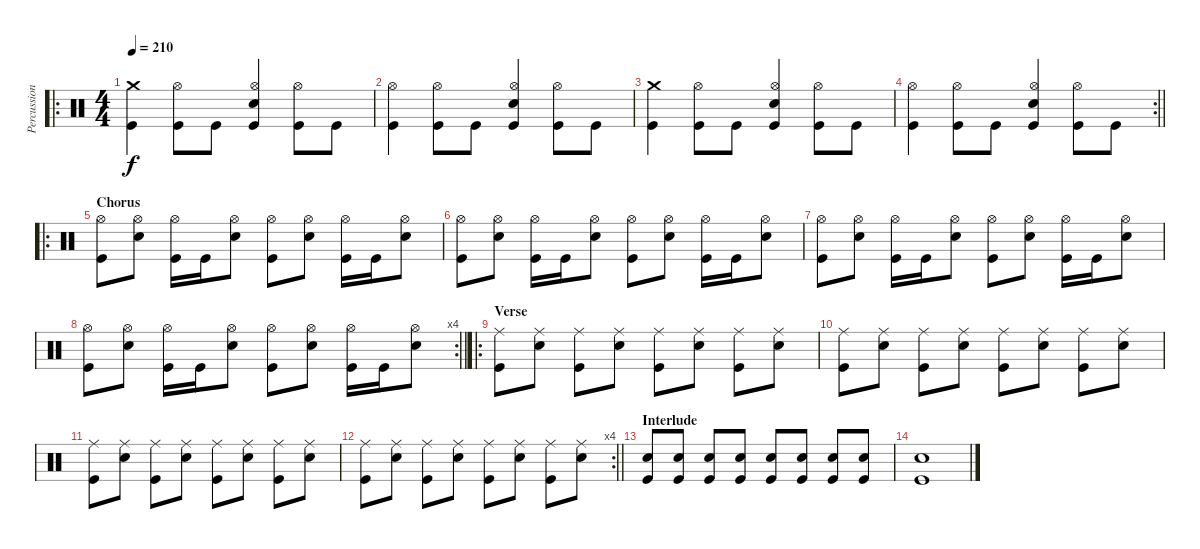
\track ("Percussion" "Percussion") {instrument percussion}
\staff {score}
\articulation defaults
\ro
\ts (4 4)
\tempo 210
\clef neutral
\ks c
("Crash medium (hit)" "Kick (hit)").4{dy f} ("Hi-Hat (open)" "Kick (hit)").8 "Kick (hit)".8 ("Hi-Hat (open)" "Snare (hit) 2" "Kick (hit)").4 ("Hi-Hat (open)" "Kick (hit)").8 "Kick (hit)".8 |
("Hi-Hat (open)" "Kick (hit)").4 ("Hi-Hat (open)" "Kick (hit)").8 "Kick (hit)".8 ("Hi-Hat (open)" "Snare (hit) 2" "Kick (hit)").4 ("Hi-Hat (open)" "Kick (hit)").8 "Kick (hit)".8 |
("Crash medium (hit)" "Kick (hit)").4 ("Hi-Hat (open)" "Kick (hit)").8 "Kick (hit)".8 ("Hi-Hat (open)" "Snare (hit) 2" "Kick (hit)").4 ("Hi-Hat (open)" "Kick (hit)").8 "Kick (hit)".8 |
\rc 2
\barLineRight lightlight
("Hi-Hat (open)" "Kick (hit)").4 ("Hi-Hat (open)" "Kick (hit)").8 "Kick (hit)".8 ("Hi-Hat (open)" "Snare (hit) 2" "Kick (hit)").4 ("Hi-Hat (open)" "Kick (hit)").8 "Kick (hit)".8 |
\ro
\section ("" "Chorus")
("Hi-Hat (open)" "Kick (hit)").8 ("Hi-Hat (open)" "Snare (hit) 2").8 ("Hi-Hat (open)" "Kick (hit)").16 "Kick (hit)".16 ("Hi-Hat (open)" "Snare (hit) 2").8 ("Hi-Hat (open)" "Kick (hit)").8 ("Hi-Hat (open)" "Snare (hit) 2").8 ("Hi-Hat (open)" "Kick (hit)").16 "Kick (hit)".16 ("Hi-Hat (open)" "Snare (hit) 2").8 |
("Hi-Hat (open)" "Kick (hit)").8 ("Hi-Hat (open)" "Snare (hit) 2").8 ("Hi-Hat (open)" "Kick (hit)").16 "Kick (hit)".16 ("Hi-Hat (open)" "Snare (hit) 2").8 ("Hi-Hat (open)" "Kick (hit)").8 ("Hi-Hat (open)" "Snare (hit) 2").8 ("Hi-Hat (open)" "Kick (hit)").16 "Kick (hit)".16 ("Hi-Hat (open)" "Snare (hit) 2").8 |
("Hi-Hat (open)" "Kick (hit)").8 ("Hi-Hat (open)" "Snare (hit) 2").8 ("Hi-Hat (open)" "Kick (hit)").16 "Kick (hit)".16 ("Hi-Hat (open)" "Snare (hit) 2").8 ("Hi-Hat (open)" "Kick (hit)").8 ("Hi-Hat (open)" "Snare (hit) 2").8 ("Hi-Hat (open)" "Kick (hit)").16 "Kick (hit)".16 ("Hi-Hat (open)" "Snare (hit) 2").8 |
\rc 4
\barLineRight lightlight
("Hi-Hat (open)" "Kick (hit)").8 ("Hi-Hat (open)" "Snare (hit) 2").8 ("Hi-Hat (open)" "Kick (hit)").16 "Kick (hit)".16 ("Hi-Hat (open)" "Snare (hit) 2").8 ("Hi-Hat (open)" "Kick (hit)").8 ("Hi-Hat (open)" "Snare (hit) 2").8 ("Hi-Hat (open)" "Kick (hit)").16 "Kick (hit)".16 ("Hi-Hat (open)" "Snare (hit) 2").8 |
\ro
\section ("" "Verse")
("Ride (middle)" "Kick (hit)").8 ("Ride (middle)" "Snare (hit) 2").8 ("Ride (middle)" "Kick (hit)").8 ("Ride (middle)" "Snare (hit) 2").8 ("Ride (middle)" "Kick (hit)").8 ("Ride (middle)" "Snare (hit) 2").8 ("Ride (middle)" "Kick (hit)").8 ("Ride (middle)" "Snare (hit) 2").8 |
("Ride (middle)" "Kick (hit)").8 ("Ride (middle)" "Snare (hit) 2").8 ("Ride (middle)" "Kick (hit)").8 ("Ride (middle)" "Snare (hit) 2").8 ("Ride (middle)" "Kick (hit)").8 ("Ride (middle)" "Snare (hit) 2").8 ("Ride (middle)" "Kick (hit)").8 ("Ride (middle)" "Snare (hit) 2").8 |
("Ride (middle)" "Kick (hit)").8 ("Ride (middle)" "Snare (hit) 2").8 ("Ride (middle)" "Kick (hit)").8 ("Ride (middle)" "Snare (hit) 2").8 ("Ride (middle)" "Kick (hit)").8 ("Ride (middle)" "Snare (hit) 2").8 ("Ride (middle)" "Kick (hit)").8 ("Ride (middle)" "Snare (hit) 2").8 |
\rc 4
\barLineRight lightlight
("Ride (middle)" "Kick (hit)").8 ("Ride (middle)" "Snare (hit) 2").8 ("Ride (middle)" "Kick (hit)").8 ("Ride (middle)" "Snare (hit) 2").8 ("Ride (middle)" "Kick (hit)").8 ("Ride (middle)" "Snare (hit) 2").8 ("Ride (middle)" "Kick (hit)").8 ("Ride (middle)" "Snare (hit) 2").8 |
\section ("" "Interlude")
("Snare (hit) 2" "Kick (hit)").8 ("Snare (hit) 2" "Kick (hit)").8 ("Snare (hit) 2" "Kick (hit)").8 ("Snare (hit) 2" "Kick (hit)").8 ("Snare (hit) 2" "Kick (hit)").8 ("Snare (hit) 2" "Kick (hit)").8 ("Snare (hit) 2" "Kick (hit)").8 ("Snare (hit) 2" "Kick (hit)").8 |
("Snare (hit) 2" "Kick (hit)").1
